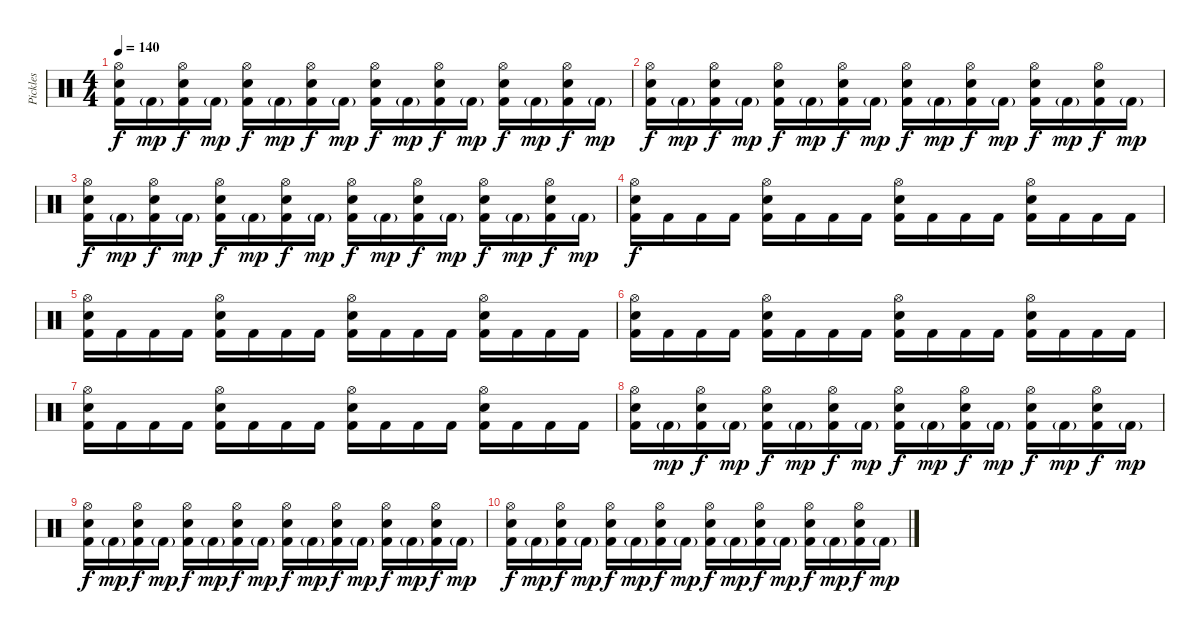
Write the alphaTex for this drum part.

\track ("Pickles" "Pickles") {instrument percussion}
\staff {score}
\articulation defaults
\ts (4 4)
\tempo 140
\clef neutral
\ks c
("Hi-Hat (open)" "Electric Snare (hit)" "Kick (hit) 2").16{dy f} "Kick (hit) 2"{g}.16{dy mp} ("Hi-Hat (open)" "Electric Snare (hit)" "Kick (hit) 2").16{dy f} "Kick (hit) 2"{g}.16{dy mp} ("Hi-Hat (open)" "Electric Snare (hit)" "Kick (hit) 2").16{dy f} "Kick (hit) 2"{g}.16{dy mp} ("Hi-Hat (open)" "Electric Snare (hit)" "Kick (hit) 2").16{dy f} "Kick (hit) 2"{g}.16{dy mp} ("Hi-Hat (open)" "Electric Snare (hit)" "Kick (hit) 2").16{dy f} "Kick (hit) 2"{g}.16{dy mp} ("Hi-Hat (open)" "Electric Snare (hit)" "Kick (hit) 2").16{dy f} "Kick (hit) 2"{g}.16{dy mp} ("Hi-Hat (open)" "Electric Snare (hit)" "Kick (hit) 2").16{dy f} "Kick (hit) 2"{g}.16{dy mp} ("Hi-Hat (open)" "Electric Snare (hit)" "Kick (hit) 2").16{dy f} "Kick (hit) 2"{g}.16{dy mp} |
("Hi-Hat (open)" "Electric Snare (hit)" "Kick (hit) 2").16{dy f} "Kick (hit) 2"{g}.16{dy mp} ("Hi-Hat (open)" "Electric Snare (hit)" "Kick (hit) 2").16{dy f} "Kick (hit) 2"{g}.16{dy mp} ("Hi-Hat (open)" "Electric Snare (hit)" "Kick (hit) 2").16{dy f} "Kick (hit) 2"{g}.16{dy mp} ("Hi-Hat (open)" "Electric Snare (hit)" "Kick (hit) 2").16{dy f} "Kick (hit) 2"{g}.16{dy mp} ("Hi-Hat (open)" "Electric Snare (hit)" "Kick (hit) 2").16{dy f} "Kick (hit) 2"{g}.16{dy mp} ("Hi-Hat (open)" "Electric Snare (hit)" "Kick (hit) 2").16{dy f} "Kick (hit) 2"{g}.16{dy mp} ("Hi-Hat (open)" "Electric Snare (hit)" "Kick (hit) 2").16{dy f} "Kick (hit) 2"{g}.16{dy mp} ("Hi-Hat (open)" "Electric Snare (hit)" "Kick (hit) 2").16{dy f} "Kick (hit) 2"{g}.16{dy mp} |
("Hi-Hat (open)" "Electric Snare (hit)" "Kick (hit) 2").16{dy f} "Kick (hit) 2"{g}.16{dy mp} ("Hi-Hat (open)" "Electric Snare (hit)" "Kick (hit) 2").16{dy f} "Kick (hit) 2"{g}.16{dy mp} ("Hi-Hat (open)" "Electric Snare (hit)" "Kick (hit) 2").16{dy f} "Kick (hit) 2"{g}.16{dy mp} ("Hi-Hat (open)" "Electric Snare (hit)" "Kick (hit) 2").16{dy f} "Kick (hit) 2"{g}.16{dy mp} ("Hi-Hat (open)" "Electric Snare (hit)" "Kick (hit) 2").16{dy f} "Kick (hit) 2"{g}.16{dy mp} ("Hi-Hat (open)" "Electric Snare (hit)" "Kick (hit) 2").16{dy f} "Kick (hit) 2"{g}.16{dy mp} ("Hi-Hat (open)" "Electric Snare (hit)" "Kick (hit) 2").16{dy f} "Kick (hit) 2"{g}.16{dy mp} ("Hi-Hat (open)" "Electric Snare (hit)" "Kick (hit) 2").16{dy f} "Kick (hit) 2"{g}.16{dy mp} |
("Hi-Hat (open)" "Electric Snare (hit)" "Kick (hit) 2").16{dy f} "Kick (hit) 2".16 "Kick (hit) 2".16 "Kick (hit) 2".16 ("Hi-Hat (open)" "Electric Snare (hit)" "Kick (hit) 2").16 "Kick (hit) 2".16 "Kick (hit) 2".16 "Kick (hit) 2".16 ("Hi-Hat (open)" "Electric Snare (hit)" "Kick (hit) 2").16 "Kick (hit) 2".16 "Kick (hit) 2".16 "Kick (hit) 2".16 ("Hi-Hat (open)" "Electric Snare (hit)" "Kick (hit) 2").16 "Kick (hit) 2".16 "Kick (hit) 2".16 "Kick (hit) 2".16 |
("Hi-Hat (open)" "Electric Snare (hit)" "Kick (hit) 2").16 "Kick (hit) 2".16 "Kick (hit) 2".16 "Kick (hit) 2".16 ("Hi-Hat (open)" "Electric Snare (hit)" "Kick (hit) 2").16 "Kick (hit) 2".16 "Kick (hit) 2".16 "Kick (hit) 2".16 ("Hi-Hat (open)" "Electric Snare (hit)" "Kick (hit) 2").16 "Kick (hit) 2".16 "Kick (hit) 2".16 "Kick (hit) 2".16 ("Hi-Hat (open)" "Electric Snare (hit)" "Kick (hit) 2").16 "Kick (hit) 2".16 "Kick (hit) 2".16 "Kick (hit) 2".16 |
("Hi-Hat (open)" "Electric Snare (hit)" "Kick (hit) 2").16 "Kick (hit) 2".16 "Kick (hit) 2".16 "Kick (hit) 2".16 ("Hi-Hat (open)" "Electric Snare (hit)" "Kick (hit) 2").16 "Kick (hit) 2".16 "Kick (hit) 2".16 "Kick (hit) 2".16 ("Hi-Hat (open)" "Electric Snare (hit)" "Kick (hit) 2").16 "Kick (hit) 2".16 "Kick (hit) 2".16 "Kick (hit) 2".16 ("Hi-Hat (open)" "Electric Snare (hit)" "Kick (hit) 2").16 "Kick (hit) 2".16 "Kick (hit) 2".16 "Kick (hit) 2".16 |
("Hi-Hat (open)" "Electric Snare (hit)" "Kick (hit) 2").16 "Kick (hit) 2".16 "Kick (hit) 2".16 "Kick (hit) 2".16 ("Hi-Hat (open)" "Electric Snare (hit)" "Kick (hit) 2").16 "Kick (hit) 2".16 "Kick (hit) 2".16 "Kick (hit) 2".16 ("Hi-Hat (open)" "Electric Snare (hit)" "Kick (hit) 2").16 "Kick (hit) 2".16 "Kick (hit) 2".16 "Kick (hit) 2".16 ("Hi-Hat (open)" "Electric Snare (hit)" "Kick (hit) 2").16 "Kick (hit) 2".16 "Kick (hit) 2".16 "Kick (hit) 2".16 |
("Hi-Hat (open)" "Electric Snare (hit)" "Kick (hit) 2").16{volume 0} "Kick (hit) 2"{g}.16{dy mp} ("Hi-Hat (open)" "Electric Snare (hit)" "Kick (hit) 2").16{dy f} "Kick (hit) 2"{g}.16{dy mp} ("Hi-Hat (open)" "Electric Snare (hit)" "Kick (hit) 2").16{dy f} "Kick (hit) 2"{g}.16{dy mp} ("Hi-Hat (open)" "Electric Snare (hit)" "Kick (hit) 2").16{dy f} "Kick (hit) 2"{g}.16{dy mp} ("Hi-Hat (open)" "Electric Snare (hit)" "Kick (hit) 2").16{dy f} "Kick (hit) 2"{g}.16{dy mp} ("Hi-Hat (open)" "Electric Snare (hit)" "Kick (hit) 2").16{dy f} "Kick (hit) 2"{g}.16{dy mp} ("Hi-Hat (open)" "Electric Snare (hit)" "Kick (hit) 2").16{dy f} "Kick (hit) 2"{g}.16{dy mp} ("Hi-Hat (open)" "Electric Snare (hit)" "Kick (hit) 2").16{dy f} "Kick (hit) 2"{g}.16{dy mp} |
("Hi-Hat (open)" "Electric Snare (hit)" "Kick (hit) 2").16{dy f} "Kick (hit) 2"{g}.16{dy mp} ("Hi-Hat (open)" "Electric Snare (hit)" "Kick (hit) 2").16{dy f} "Kick (hit) 2"{g}.16{dy mp} ("Hi-Hat (open)" "Electric Snare (hit)" "Kick (hit) 2").16{dy f} "Kick (hit) 2"{g}.16{dy mp} ("Hi-Hat (open)" "Electric Snare (hit)" "Kick (hit) 2").16{dy f} "Kick (hit) 2"{g}.16{dy mp} ("Hi-Hat (open)" "Electric Snare (hit)" "Kick (hit) 2").16{dy f} "Kick (hit) 2"{g}.16{dy mp} ("Hi-Hat (open)" "Electric Snare (hit)" "Kick (hit) 2").16{dy f} "Kick (hit) 2"{g}.16{dy mp} ("Hi-Hat (open)" "Electric Snare (hit)" "Kick (hit) 2").16{dy f} "Kick (hit) 2"{g}.16{dy mp} ("Hi-Hat (open)" "Electric Snare (hit)" "Kick (hit) 2").16{dy f} "Kick (hit) 2"{g}.16{dy mp} |
("Hi-Hat (open)" "Electric Snare (hit)" "Kick (hit) 2").16{dy f} "Kick (hit) 2"{g}.16{dy mp} ("Hi-Hat (open)" "Electric Snare (hit)" "Kick (hit) 2").16{dy f} "Kick (hit) 2"{g}.16{dy mp} ("Hi-Hat (open)" "Electric Snare (hit)" "Kick (hit) 2").16{dy f} "Kick (hit) 2"{g}.16{dy mp} ("Hi-Hat (open)" "Electric Snare (hit)" "Kick (hit) 2").16{dy f} "Kick (hit) 2"{g}.16{dy mp} ("Hi-Hat (open)" "Electric Snare (hit)" "Kick (hit) 2").16{dy f} "Kick (hit) 2"{g}.16{dy mp} ("Hi-Hat (open)" "Electric Snare (hit)" "Kick (hit) 2").16{dy f} "Kick (hit) 2"{g}.16{dy mp} ("Hi-Hat (open)" "Electric Snare (hit)" "Kick (hit) 2").16{dy f} "Kick (hit) 2"{g}.16{dy mp} ("Hi-Hat (open)" "Electric Snare (hit)" "Kick (hit) 2").16{dy f} "Kick (hit) 2"{g}.16{dy mp}
